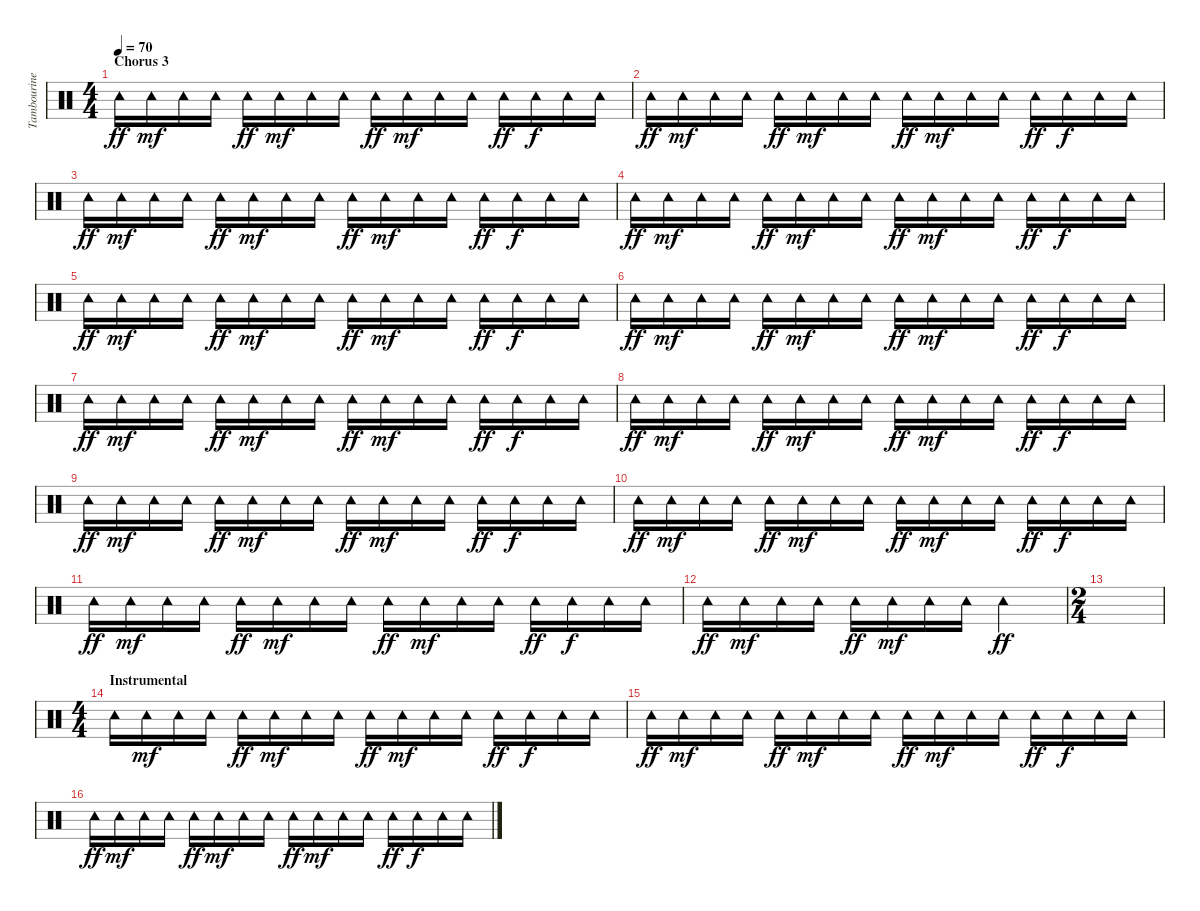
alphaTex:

\track ("Tambourine" "Tambourine") {instrument percussion}
\staff {score}
\articulation defaults
\ts (4 4)
\section ("" "Chorus 3")
\tempo 70
\clef neutral
\ks c "Tambourine (hit)".16{dy ff} "Tambourine (hit)".16{dy mf} "Tambourine (hit)".16 "Tambourine (hit)".16 "Tambourine (hit)".16{dy ff} "Tambourine (hit)".16{dy mf} "Tambourine (hit)".16 "Tambourine (hit)".16 "Tambourine (hit)".16{dy ff} "Tambourine (hit)".16{dy mf} "Tambourine (hit)".16 "Tambourine (hit)".16 "Tambourine (hit)".16{dy ff} "Tambourine (hit)".16{dy f} "Tambourine (hit)".16 "Tambourine (hit)".16
|
"Tambourine (hit)".16{dy ff} "Tambourine (hit)".16{dy mf} "Tambourine (hit)".16 "Tambourine (hit)".16 "Tambourine (hit)".16{dy ff} "Tambourine (hit)".16{dy mf} "Tambourine (hit)".16 "Tambourine (hit)".16 "Tambourine (hit)".16{dy ff} "Tambourine (hit)".16{dy mf} "Tambourine (hit)".16 "Tambourine (hit)".16 "Tambourine (hit)".16{dy ff} "Tambourine (hit)".16{dy f} "Tambourine (hit)".16 "Tambourine (hit)".16 |
"Tambourine (hit)".16{dy ff} "Tambourine (hit)".16{dy mf} "Tambourine (hit)".16 "Tambourine (hit)".16 "Tambourine (hit)".16{dy ff} "Tambourine (hit)".16{dy mf} "Tambourine (hit)".16 "Tambourine (hit)".16 "Tambourine (hit)".16{dy ff} "Tambourine (hit)".16{dy mf} "Tambourine (hit)".16 "Tambourine (hit)".16 "Tambourine (hit)".16{dy ff} "Tambourine (hit)".16{dy f} "Tambourine (hit)".16 "Tambourine (hit)".16 |
"Tambourine (hit)".16{dy ff} "Tambourine (hit)".16{dy mf} "Tambourine (hit)".16 "Tambourine (hit)".16 "Tambourine (hit)".16{dy ff} "Tambourine (hit)".16{dy mf} "Tambourine (hit)".16 "Tambourine (hit)".16 "Tambourine (hit)".16{dy ff} "Tambourine (hit)".16{dy mf} "Tambourine (hit)".16 "Tambourine (hit)".16 "Tambourine (hit)".16{dy ff} "Tambourine (hit)".16{dy f} "Tambourine (hit)".16 "Tambourine (hit)".16 |
"Tambourine (hit)".16{dy ff} "Tambourine (hit)".16{dy mf} "Tambourine (hit)".16 "Tambourine (hit)".16 "Tambourine (hit)".16{dy ff} "Tambourine (hit)".16{dy mf} "Tambourine (hit)".16 "Tambourine (hit)".16 "Tambourine (hit)".16{dy ff} "Tambourine (hit)".16{dy mf} "Tambourine (hit)".16 "Tambourine (hit)".16 "Tambourine (hit)".16{dy ff} "Tambourine (hit)".16{dy f} "Tambourine (hit)".16 "Tambourine (hit)".16 |
"Tambourine (hit)".16{dy ff} "Tambourine (hit)".16{dy mf} "Tambourine (hit)".16 "Tambourine (hit)".16 "Tambourine (hit)".16{dy ff} "Tambourine (hit)".16{dy mf} "Tambourine (hit)".16 "Tambourine (hit)".16 "Tambourine (hit)".16{dy ff} "Tambourine (hit)".16{dy mf} "Tambourine (hit)".16 "Tambourine (hit)".16 "Tambourine (hit)".16{dy ff} "Tambourine (hit)".16{dy f} "Tambourine (hit)".16 "Tambourine (hit)".16 |
"Tambourine (hit)".16{dy ff} "Tambourine (hit)".16{dy mf} "Tambourine (hit)".16 "Tambourine (hit)".16 "Tambourine (hit)".16{dy ff} "Tambourine (hit)".16{dy mf} "Tambourine (hit)".16 "Tambourine (hit)".16 "Tambourine (hit)".16{dy ff} "Tambourine (hit)".16{dy mf} "Tambourine (hit)".16 "Tambourine (hit)".16 "Tambourine (hit)".16{dy ff} "Tambourine (hit)".16{dy f} "Tambourine (hit)".16 "Tambourine (hit)".16 |
"Tambourine (hit)".16{dy ff} "Tambourine (hit)".16{dy mf} "Tambourine (hit)".16 "Tambourine (hit)".16 "Tambourine (hit)".16{dy ff} "Tambourine (hit)".16{dy mf} "Tambourine (hit)".16 "Tambourine (hit)".16 "Tambourine (hit)".16{dy ff} "Tambourine (hit)".16{dy mf} "Tambourine (hit)".16 "Tambourine (hit)".16 "Tambourine (hit)".16{dy ff} "Tambourine (hit)".16{dy f} "Tambourine (hit)".16 "Tambourine (hit)".16 |
"Tambourine (hit)".16{dy ff} "Tambourine (hit)".16{dy mf} "Tambourine (hit)".16 "Tambourine (hit)".16 "Tambourine (hit)".16{dy ff} "Tambourine (hit)".16{dy mf} "Tambourine (hit)".16 "Tambourine (hit)".16 "Tambourine (hit)".16{dy ff} "Tambourine (hit)".16{dy mf} "Tambourine (hit)".16 "Tambourine (hit)".16 "Tambourine (hit)".16{dy ff} "Tambourine (hit)".16{dy f} "Tambourine (hit)".16 "Tambourine (hit)".16 |
"Tambourine (hit)".16{dy ff} "Tambourine (hit)".16{dy mf} "Tambourine (hit)".16 "Tambourine (hit)".16 "Tambourine (hit)".16{dy ff} "Tambourine (hit)".16{dy mf} "Tambourine (hit)".16 "Tambourine (hit)".16 "Tambourine (hit)".16{dy ff} "Tambourine (hit)".16{dy mf} "Tambourine (hit)".16 "Tambourine (hit)".16 "Tambourine (hit)".16{dy ff} "Tambourine (hit)".16{dy f} "Tambourine (hit)".16 "Tambourine (hit)".16 |
"Tambourine (hit)".16{dy ff} "Tambourine (hit)".16{dy mf} "Tambourine (hit)".16 "Tambourine (hit)".16 "Tambourine (hit)".16{dy ff} "Tambourine (hit)".16{dy mf} "Tambourine (hit)".16 "Tambourine (hit)".16 "Tambourine (hit)".16{dy ff} "Tambourine (hit)".16{dy mf} "Tambourine (hit)".16 "Tambourine (hit)".16 "Tambourine (hit)".16{dy ff} "Tambourine (hit)".16{dy f} "Tambourine (hit)".16 "Tambourine (hit)".16 |
"Tambourine (hit)".16{dy ff} "Tambourine (hit)".16{dy mf} "Tambourine (hit)".16 "Tambourine (hit)".16 "Tambourine (hit)".16{dy ff} "Tambourine (hit)".16{dy mf} "Tambourine (hit)".16 "Tambourine (hit)".16 "Tambourine (hit)".2{dy ff} |
\ts (2 4)
|
\ts (4 4)
\section ("" "Instrumental")
"Tambourine (hit)".16 "Tambourine (hit)".16{dy mf} "Tambourine (hit)".16 "Tambourine (hit)".16 "Tambourine (hit)".16{dy ff} "Tambourine (hit)".16{dy mf} "Tambourine (hit)".16 "Tambourine (hit)".16 "Tambourine (hit)".16{dy ff} "Tambourine (hit)".16{dy mf} "Tambourine (hit)".16 "Tambourine (hit)".16 "Tambourine (hit)".16{dy ff} "Tambourine (hit)".16{dy f} "Tambourine (hit)".16 "Tambourine (hit)".16 |
"Tambourine (hit)".16{dy ff} "Tambourine (hit)".16{dy mf} "Tambourine (hit)".16 "Tambourine (hit)".16 "Tambourine (hit)".16{dy ff} "Tambourine (hit)".16{dy mf} "Tambourine (hit)".16 "Tambourine (hit)".16 "Tambourine (hit)".16{dy ff} "Tambourine (hit)".16{dy mf} "Tambourine (hit)".16 "Tambourine (hit)".16 "Tambourine (hit)".16{dy ff} "Tambourine (hit)".16{dy f} "Tambourine (hit)".16 "Tambourine (hit)".16 |
"Tambourine (hit)".16{dy ff} "Tambourine (hit)".16{dy mf} "Tambourine (hit)".16 "Tambourine (hit)".16 "Tambourine (hit)".16{dy ff} "Tambourine (hit)".16{dy mf} "Tambourine (hit)".16 "Tambourine (hit)".16 "Tambourine (hit)".16{dy ff} "Tambourine (hit)".16{dy mf} "Tambourine (hit)".16 "Tambourine (hit)".16 "Tambourine (hit)".16{dy ff} "Tambourine (hit)".16{dy f} "Tambourine (hit)".16 "Tambourine (hit)".16
